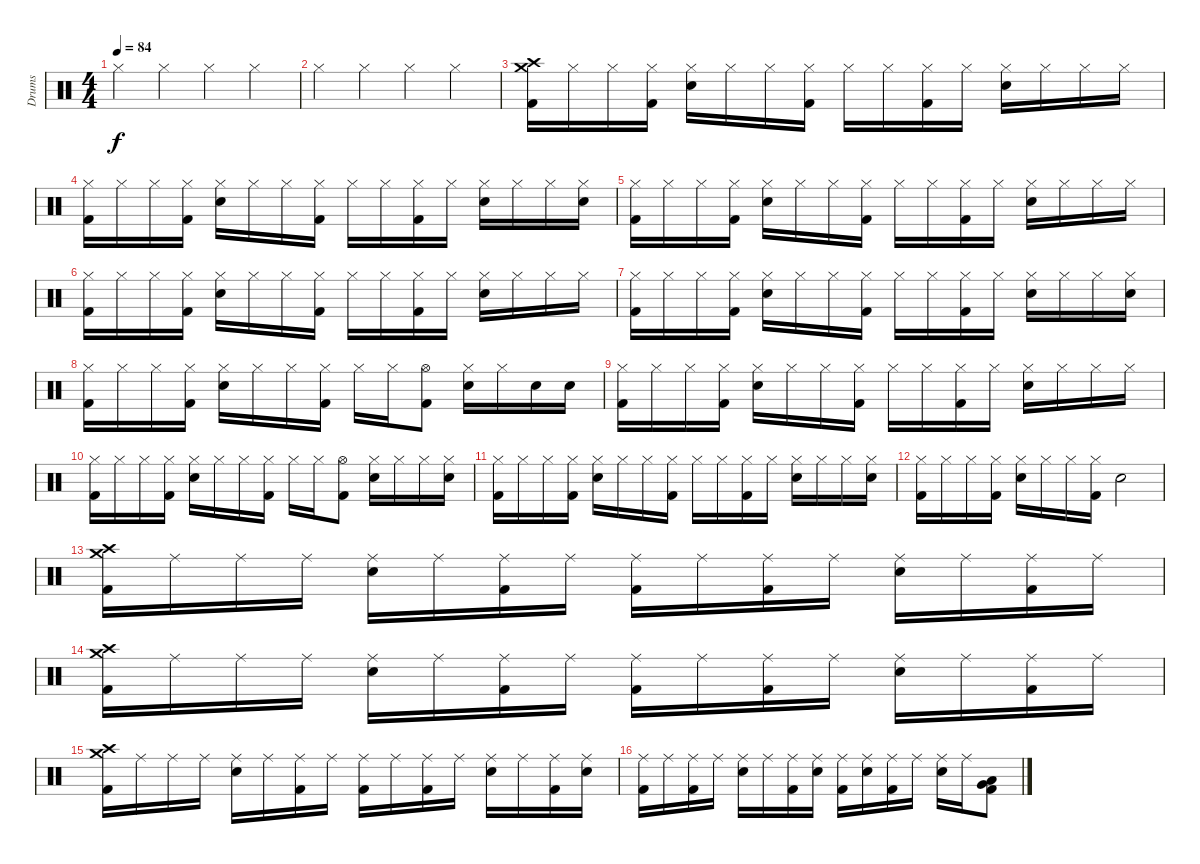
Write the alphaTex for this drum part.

\track ("Drums" "Drums") {instrument percussion}
\staff {score}
\articulation defaults
\ts (4 4)
\tempo 84
\clef neutral
\ks c "Hi-Hat (closed)".4{dy f} "Hi-Hat (closed)".4 "Hi-Hat (closed)".4 "Hi-Hat (closed)".4
|
"Hi-Hat (closed)".4 "Hi-Hat (closed)".4 "Hi-Hat (closed)".4 "Hi-Hat (closed)".4 |
("Crash high (hit)" "Crash medium (hit)" "Kick (hit) 2").16 "Hi-Hat (closed)".16 "Hi-Hat (closed)".16 ("Hi-Hat (closed)" "Kick (hit) 2").16 ("Hi-Hat (closed)" "Snare (hit) 2").16 "Hi-Hat (closed)".16 "Hi-Hat (closed)".16 ("Hi-Hat (closed)" "Kick (hit) 2").16 "Hi-Hat (closed)".16 "Hi-Hat (closed)".16 ("Hi-Hat (closed)" "Kick (hit) 2").16 "Hi-Hat (closed)".16 ("Hi-Hat (closed)" "Snare (hit) 2").16 "Hi-Hat (closed)".16 "Hi-Hat (closed)".16 "Hi-Hat (closed)".16 |
("Hi-Hat (closed)" "Kick (hit) 2").16 "Hi-Hat (closed)".16 "Hi-Hat (closed)".16 ("Hi-Hat (closed)" "Kick (hit) 2").16 ("Hi-Hat (closed)" "Snare (hit) 2").16 "Hi-Hat (closed)".16 "Hi-Hat (closed)".16 ("Hi-Hat (closed)" "Kick (hit) 2").16 "Hi-Hat (closed)".16 "Hi-Hat (closed)".16 ("Hi-Hat (closed)" "Kick (hit) 2").16 "Hi-Hat (closed)".16 ("Hi-Hat (closed)" "Snare (hit) 2").16 "Hi-Hat (closed)".16 "Hi-Hat (closed)".16 ("Hi-Hat (closed)" "Snare (hit) 2").16 |
("Hi-Hat (closed)" "Kick (hit) 2").16 "Hi-Hat (closed)".16 "Hi-Hat (closed)".16 ("Hi-Hat (closed)" "Kick (hit) 2").16 ("Hi-Hat (closed)" "Snare (hit) 2").16 "Hi-Hat (closed)".16 "Hi-Hat (closed)".16 ("Hi-Hat (closed)" "Kick (hit) 2").16 "Hi-Hat (closed)".16 "Hi-Hat (closed)".16 ("Hi-Hat (closed)" "Kick (hit) 2").16 "Hi-Hat (closed)".16 ("Hi-Hat (closed)" "Snare (hit) 2").16 "Hi-Hat (closed)".16 "Hi-Hat (closed)".16 "Hi-Hat (closed)".16 |
("Hi-Hat (closed)" "Kick (hit) 2").16 "Hi-Hat (closed)".16 "Hi-Hat (closed)".16 ("Hi-Hat (closed)" "Kick (hit) 2").16 ("Hi-Hat (closed)" "Snare (hit) 2").16 "Hi-Hat (closed)".16 "Hi-Hat (closed)".16 ("Hi-Hat (closed)" "Kick (hit) 2").16 "Hi-Hat (closed)".16 "Hi-Hat (closed)".16 ("Hi-Hat (closed)" "Kick (hit) 2").16 "Hi-Hat (closed)".16 ("Hi-Hat (closed)" "Snare (hit) 2").16 "Hi-Hat (closed)".16 "Hi-Hat (closed)".16 "Hi-Hat (closed)".16 |
("Hi-Hat (closed)" "Kick (hit) 2").16 "Hi-Hat (closed)".16 "Hi-Hat (closed)".16 ("Hi-Hat (closed)" "Kick (hit) 2").16 ("Hi-Hat (closed)" "Snare (hit) 2").16 "Hi-Hat (closed)".16 "Hi-Hat (closed)".16 ("Hi-Hat (closed)" "Kick (hit) 2").16 "Hi-Hat (closed)".16 "Hi-Hat (closed)".16 ("Hi-Hat (closed)" "Kick (hit) 2").16 "Hi-Hat (closed)".16 ("Hi-Hat (closed)" "Snare (hit) 2").16 "Hi-Hat (closed)".16 "Hi-Hat (closed)".16 ("Hi-Hat (closed)" "Snare (hit) 2").16 |
("Hi-Hat (closed)" "Kick (hit) 2").16 "Hi-Hat (closed)".16 "Hi-Hat (closed)".16 ("Hi-Hat (closed)" "Kick (hit) 2").16 ("Hi-Hat (closed)" "Snare (hit) 2").16 "Hi-Hat (closed)".16 "Hi-Hat (closed)".16 ("Hi-Hat (closed)" "Kick (hit) 2").16 "Hi-Hat (closed)".16 "Hi-Hat (closed)".16 ("Hi-Hat (open)" "Kick (hit) 2").8 ("Hi-Hat (closed)" "Snare (hit) 2").16 "Hi-Hat (closed)".16 "Snare (hit) 2".16 "Snare (hit) 2".16 |
("Hi-Hat (closed)" "Kick (hit) 2").16 "Hi-Hat (closed)".16 "Hi-Hat (closed)".16 ("Hi-Hat (closed)" "Kick (hit) 2").16 ("Hi-Hat (closed)" "Snare (hit) 2").16 "Hi-Hat (closed)".16 "Hi-Hat (closed)".16 ("Hi-Hat (closed)" "Kick (hit) 2").16 "Hi-Hat (closed)".16 "Hi-Hat (closed)".16 ("Hi-Hat (closed)" "Kick (hit) 2").16 "Hi-Hat (closed)".16 ("Hi-Hat (closed)" "Snare (hit) 2").16 "Hi-Hat (closed)".16 "Hi-Hat (closed)".16 "Hi-Hat (closed)".16 |
("Hi-Hat (closed)" "Kick (hit) 2").16 "Hi-Hat (closed)".16 "Hi-Hat (closed)".16 ("Hi-Hat (closed)" "Kick (hit) 2").16 ("Hi-Hat (closed)" "Snare (hit) 2").16 "Hi-Hat (closed)".16 "Hi-Hat (closed)".16 ("Hi-Hat (closed)" "Kick (hit) 2").16 "Hi-Hat (closed)".16 "Hi-Hat (closed)".16 ("Hi-Hat (open)" "Kick (hit) 2").8 ("Hi-Hat (closed)" "Snare (hit) 2").16 "Hi-Hat (closed)".16 "Hi-Hat (closed)".16 ("Hi-Hat (closed)" "Snare (hit) 2").16 |
("Hi-Hat (closed)" "Kick (hit) 2").16 "Hi-Hat (closed)".16 "Hi-Hat (closed)".16 ("Hi-Hat (closed)" "Kick (hit) 2").16 ("Hi-Hat (closed)" "Snare (hit) 2").16 "Hi-Hat (closed)".16 "Hi-Hat (closed)".16 ("Hi-Hat (closed)" "Kick (hit) 2").16 "Hi-Hat (closed)".16 "Hi-Hat (closed)".16 ("Hi-Hat (closed)" "Kick (hit) 2").16 "Hi-Hat (closed)".16 ("Hi-Hat (closed)" "Snare (hit) 2").16 "Hi-Hat (closed)".16 "Hi-Hat (closed)".16 ("Hi-Hat (closed)" "Snare (hit) 2").16 |
("Hi-Hat (closed)" "Kick (hit) 2").16 "Hi-Hat (closed)".16 "Hi-Hat (closed)".16 ("Hi-Hat (closed)" "Kick (hit) 2").16 ("Hi-Hat (closed)" "Snare (hit) 2").16 "Hi-Hat (closed)".16 "Hi-Hat (closed)".16 ("Hi-Hat (closed)" "Kick (hit) 2").16 "Snare (hit) 2".2 |
("Crash high (hit)" "Crash medium (hit)" "Kick (hit) 2").16 "Ride (middle)".16 "Ride (middle)".16 "Ride (middle)".16 ("Ride (middle)" "Snare (hit) 2").16 "Ride (middle)".16 ("Ride (middle)" "Kick (hit) 2").16 "Ride (middle)".16 ("Ride (middle)" "Kick (hit) 2").16 "Ride (middle)".16 ("Ride (middle)" "Kick (hit) 2").16 "Ride (middle)".16 ("Ride (middle)" "Snare (hit) 2").16 "Ride (middle)".16 ("Ride (middle)" "Kick (hit) 2").16 "Ride (middle)".16 |
("Crash high (hit)" "Crash medium (hit)" "Kick (hit) 2").16 "Ride (middle)".16 "Ride (middle)".16 "Ride (middle)".16 ("Ride (middle)" "Snare (hit) 2").16 "Ride (middle)".16 ("Ride (middle)" "Kick (hit) 2").16 "Ride (middle)".16 ("Ride (middle)" "Kick (hit) 2").16 "Ride (middle)".16 ("Ride (middle)" "Kick (hit) 2").16 "Ride (middle)".16 ("Ride (middle)" "Snare (hit) 2").16 "Ride (middle)".16 ("Ride (middle)" "Kick (hit) 2").16 "Ride (middle)".16 |
("Crash high (hit)" "Crash medium (hit)" "Kick (hit) 2").16 "Ride (middle)".16 "Ride (middle)".16 "Ride (middle)".16 ("Ride (middle)" "Snare (hit) 2").16 "Ride (middle)".16 ("Ride (middle)" "Kick (hit) 2").16 "Ride (middle)".16 ("Ride (middle)" "Kick (hit) 2").16 "Ride (middle)".16 ("Ride (middle)" "Kick (hit) 2").16 "Ride (middle)".16 ("Ride (middle)" "Snare (hit) 2").16 "Ride (middle)".16 ("Ride (middle)" "Kick (hit) 2").16 ("Ride (middle)" "Snare (hit) 2").16 |
("Ride (middle)" "Kick (hit) 2").16 "Ride (middle)".16 ("Ride (middle)" "Kick (hit) 2").16 "Ride (middle)".16 ("Ride (middle)" "Snare (hit) 2").16 "Ride (middle)".16 ("Ride (middle)" "Kick (hit) 2").16 ("Ride (middle)" "Snare (hit) 2").16 ("Ride (middle)" "Kick (hit) 2").16 ("Ride (middle)" "Snare (hit) 2").16 ("Ride (middle)" "Kick (hit) 2").16 "Ride (middle)".16 ("Ride (middle)" "Snare (hit) 2").16 "Ride (middle)".16 ("Very Low Tom (hit)" "Low Floor Tom (hit)" "Kick (hit) 2").8
